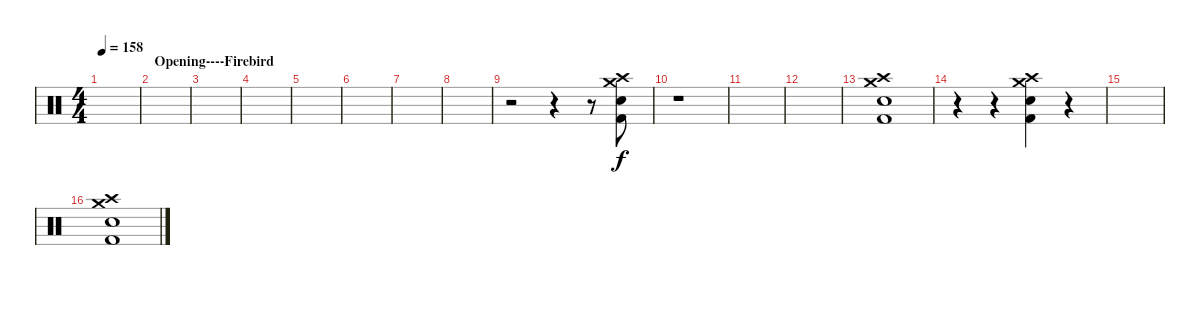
\track "" {instrument percussion}
\staff {score}
\articulation defaults
\ts (4 4)
\tempo 158
\clef neutral
\ks c
|
\section ("" "Opening----Firebird")
|
|
|
|
|
|
|
r.2 r.4 r.8 ("Crash high (hit)" "Crash medium (hit)" "Electric Snare (hit)" "Kick (hit) 2").8 |
r.1 |
|
|
("Crash high (hit)" "Crash medium (hit)" "Electric Snare (hit)" "Kick (hit) 2").1 |
r.4 r.4 ("Crash high (hit)" "Crash medium (hit)" "Electric Snare (hit)" "Kick (hit) 2").4 r.4 |
|
("Crash high (hit)" "Crash medium (hit)" "Electric Snare (hit)" "Kick (hit) 2").1
